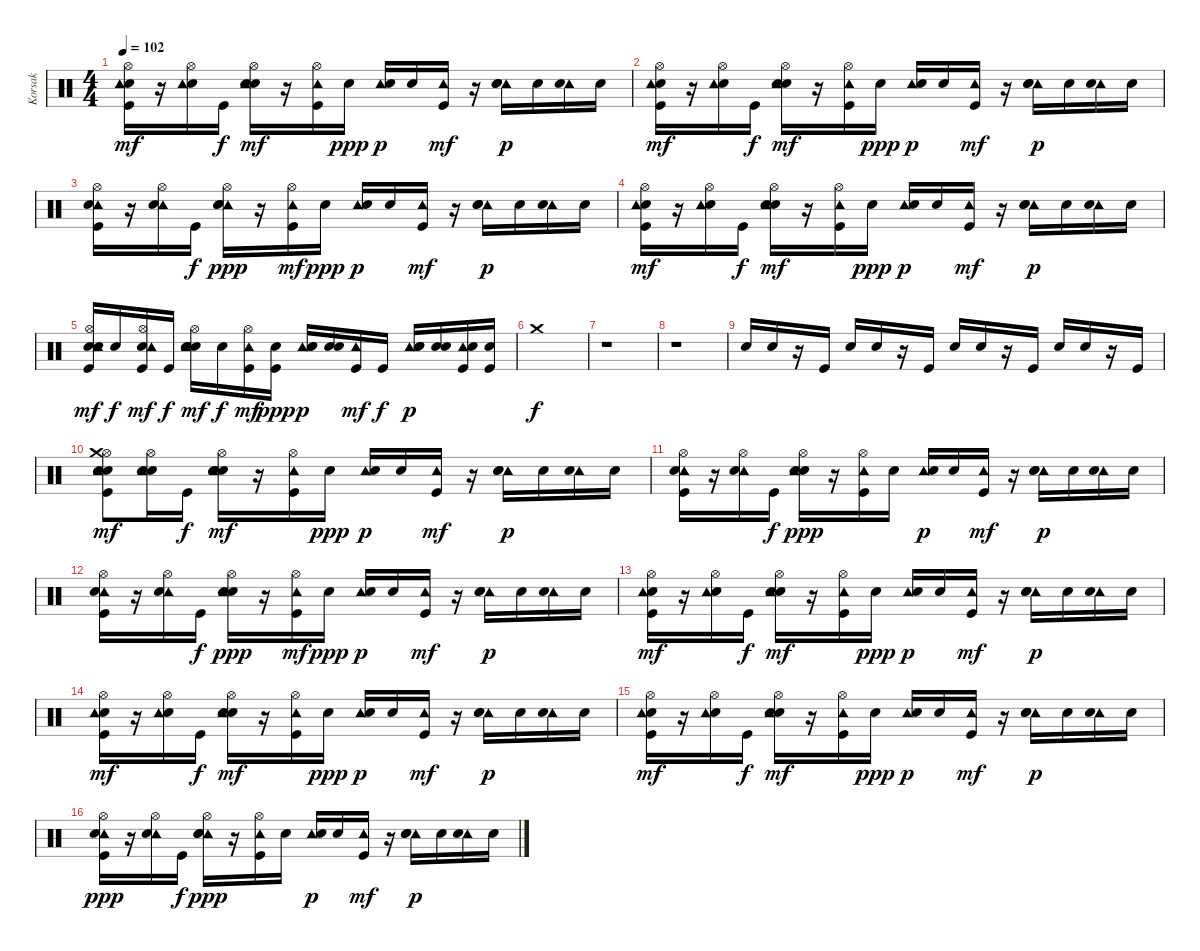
\track ("Korsak" "Korsak") {instrument percussion}
\staff {score}
\articulation defaults
\ts (4 4)
\tempo 102
\clef neutral
\ks c
("Kick (hit)" "Hi-Hat (open)" "Electric Snare (hit)" "Tambourine (hit)").16{dy mf} r.16 ("Hi-Hat (open)" "Electric Snare (hit)" "Tambourine (hit)").16 "Kick (hit)".16{dy f} ("Snare (hit) 2" "Hi-Hat (open)" "Electric Snare (hit)" "Tambourine (hit)").16{dy mf} r.16 ("Kick (hit)" "Hi-Hat (open)" "Tambourine (hit)").16 "Electric Snare (hit)".16{dy ppp} ("Tambourine (hit)" "Electric Snare (hit)").16{dy p} "Electric Snare (hit)".16 ("Kick (hit)" "Tambourine (hit)").16{dy mf} r.16 ("Tambourine (hit)" "Electric Snare (hit)" "Snare (hit) 2").16{dy p} "Electric Snare (hit)".16 ("Tambourine (hit)" "Electric Snare (hit)").16 "Electric Snare (hit)".16 |
("Hi-Hat (open)" "Kick (hit)" "Electric Snare (hit)" "Tambourine (hit)").16{dy mf} r.16 ("Hi-Hat (open)" "Electric Snare (hit)" "Tambourine (hit)").16 "Kick (hit)".16{dy f} ("Hi-Hat (open)" "Snare (hit) 2" "Electric Snare (hit)" "Tambourine (hit)").16{dy mf} r.16 ("Hi-Hat (open)" "Kick (hit)" "Tambourine (hit)").16 "Electric Snare (hit)".16{dy ppp} ("Tambourine (hit)" "Electric Snare (hit)").16{dy p} "Electric Snare (hit)".16 ("Kick (hit)" "Tambourine (hit)").16{dy mf} r.16 ("Tambourine (hit)" "Electric Snare (hit)" "Snare (hit) 2").16{dy p} "Electric Snare (hit)".16 ("Tambourine (hit)" "Electric Snare (hit)").16 "Electric Snare (hit)".16 |
("Hi-Hat (open)" "Tambourine (hit)" "Electric Snare (hit)" "Kick (hit)").16 r.16 ("Hi-Hat (open)" "Tambourine (hit)" "Electric Snare (hit)").16 "Kick (hit)".16{dy f} ("Hi-Hat (open)" "Tambourine (hit)" "Electric Snare (hit)" "Snare (hit) 2").16{dy ppp} r.16 ("Hi-Hat (open)" "Tambourine (hit)" "Kick (hit)").16{dy mf} "Electric Snare (hit)".16{dy ppp} ("Tambourine (hit)" "Electric Snare (hit)").16{dy p} "Electric Snare (hit)".16 ("Tambourine (hit)" "Kick (hit)").16{dy mf} r.16 ("Tambourine (hit)" "Electric Snare (hit)" "Snare (hit) 2").16{dy p} "Electric Snare (hit)".16 ("Tambourine (hit)" "Electric Snare (hit)").16 "Electric Snare (hit)".16 |
("Hi-Hat (open)" "Kick (hit)" "Electric Snare (hit)" "Tambourine (hit)").16{dy mf} r.16 ("Hi-Hat (open)" "Electric Snare (hit)" "Tambourine (hit)").16 "Kick (hit)".16{dy f} ("Hi-Hat (open)" "Snare (hit) 2" "Electric Snare (hit)" "Tambourine (hit)").16{dy mf} r.16 ("Hi-Hat (open)" "Kick (hit)" "Tambourine (hit)").16 "Electric Snare (hit)".16{dy ppp} ("Tambourine (hit)" "Electric Snare (hit)").16{dy p} "Electric Snare (hit)".16 ("Kick (hit)" "Tambourine (hit)").16{dy mf} r.16 ("Tambourine (hit)" "Electric Snare (hit)" "Snare (hit) 2").16{dy p} "Electric Snare (hit)".16 ("Tambourine (hit)" "Electric Snare (hit)").16 "Electric Snare (hit)".16 |
("Electric Snare (hit)" "Hi-Hat (open)" "Kick (hit)" "Tambourine (hit)" "Snare (hit) 2").16{dy mf} "Snare (hit) 2".16{dy f} ("Kick (hit)" "Electric Snare (hit)" "Hi-Hat (open)" "Tambourine (hit)").16{dy mf} "Kick (hit)".16{dy f} ("Electric Snare (hit)" "Hi-Hat (open)" "Snare (hit) 2" "Tambourine (hit)" "Snare (hit) 2").16{dy mf} "Snare (hit) 2".16{dy f} ("Hi-Hat (open)" "Kick (hit)" "Tambourine (hit)").16{dy mf} ("Kick (hit)" "Electric Snare (hit)").16{dy ppp} ("Tambourine (hit)" "Snare (hit) 2" "Electric Snare (hit)").16{dy p} ("Snare (hit) 2" "Electric Snare (hit)").16 ("Kick (hit)" "Tambourine (hit)").16{dy mf} "Kick (hit)".16{dy f} ("Tambourine (hit)" "Snare (hit) 2" "Electric Snare (hit)" "Snare (hit) 2").16{dy p} ("Snare (hit) 2" "Electric Snare (hit)").16 ("Tambourine (hit)" "Kick (hit)" "Electric Snare (hit)").16 ("Kick (hit)" "Electric Snare (hit)").16 |
"Crash medium (hit)".1{dy f} |
r.1 |
r.1 |
"Snare (hit) 2".16 "Snare (hit) 2".16 r.16 "Kick (hit)".16 "Snare (hit) 2".16 "Snare (hit) 2".16 r.16 "Kick (hit)".16 "Snare (hit) 2".16 "Snare (hit) 2".16 r.16 "Kick (hit)".16 "Snare (hit) 2".16 "Snare (hit) 2".16 r.16 "Kick (hit)".16 |
("Hi-Hat (open)" "Electric Snare (hit)" "Electric Snare (hit)" "Crash medium (hit)" "Tambourine (hit)" "Kick (hit)").8{dy mf} ("Hi-Hat (open)" "Electric Snare (hit)" "Electric Snare (hit)" "Tambourine (hit)").16 "Kick (hit)".16{dy f} ("Hi-Hat (open)" "Electric Snare (hit)" "Electric Snare (hit)" "Tambourine (hit)" "Snare (hit) 2").16{dy mf} r.16 ("Hi-Hat (open)" "Tambourine (hit)" "Kick (hit)").16 "Electric Snare (hit)".16{dy ppp} ("Tambourine (hit)" "Electric Snare (hit)").16{dy p} "Electric Snare (hit)".16 ("Tambourine (hit)" "Kick (hit)").16{dy mf} r.16 ("Tambourine (hit)" "Electric Snare (hit)" "Snare (hit) 2").16{dy p} "Electric Snare (hit)".16 ("Tambourine (hit)" "Electric Snare (hit)").16 "Electric Snare (hit)".16 |
("Kick (hit)" "Tambourine (hit)" "Hi-Hat (open)" "Electric Snare (hit)").16 r.16 ("Tambourine (hit)" "Hi-Hat (open)" "Electric Snare (hit)").16 "Kick (hit)".16{dy f} ("Snare (hit) 2" "Tambourine (hit)" "Hi-Hat (open)" "Electric Snare (hit)").16{dy ppp} r.16 ("Kick (hit)" "Tambourine (hit)" "Hi-Hat (open)").16 "Electric Snare (hit)".16 ("Tambourine (hit)" "Electric Snare (hit)").16{dy p} "Electric Snare (hit)".16 ("Kick (hit)" "Tambourine (hit)").16{dy mf} r.16 ("Tambourine (hit)" "Electric Snare (hit)" "Snare (hit) 2").16{dy p} "Electric Snare (hit)".16 ("Tambourine (hit)" "Electric Snare (hit)").16 "Electric Snare (hit)".16 |
("Kick (hit)" "Hi-Hat (open)" "Tambourine (hit)" "Electric Snare (hit)").16 r.16 ("Hi-Hat (open)" "Tambourine (hit)" "Electric Snare (hit)").16 "Kick (hit)".16{dy f} ("Snare (hit) 2" "Hi-Hat (open)" "Tambourine (hit)" "Electric Snare (hit)").16{dy ppp} r.16 ("Kick (hit)" "Hi-Hat (open)" "Tambourine (hit)").16{dy mf} "Electric Snare (hit)".16{dy ppp} ("Tambourine (hit)" "Electric Snare (hit)").16{dy p} "Electric Snare (hit)".16 ("Kick (hit)" "Tambourine (hit)").16{dy mf} r.16 ("Tambourine (hit)" "Electric Snare (hit)" "Snare (hit) 2").16{dy p} "Electric Snare (hit)".16 ("Tambourine (hit)" "Electric Snare (hit)").16 "Electric Snare (hit)".16 |
("Hi-Hat (open)" "Kick (hit)" "Electric Snare (hit)" "Tambourine (hit)").16{dy mf} r.16 ("Hi-Hat (open)" "Electric Snare (hit)" "Tambourine (hit)").16 "Kick (hit)".16{dy f} ("Hi-Hat (open)" "Snare (hit) 2" "Electric Snare (hit)" "Tambourine (hit)").16{dy mf} r.16 ("Hi-Hat (open)" "Kick (hit)" "Tambourine (hit)").16 "Electric Snare (hit)".16{dy ppp} ("Tambourine (hit)" "Electric Snare (hit)").16{dy p} "Electric Snare (hit)".16 ("Kick (hit)" "Tambourine (hit)").16{dy mf} r.16 ("Tambourine (hit)" "Electric Snare (hit)" "Snare (hit) 2").16{dy p} "Electric Snare (hit)".16 ("Tambourine (hit)" "Electric Snare (hit)").16 "Electric Snare (hit)".16 |
("Electric Snare (hit)" "Kick (hit)" "Hi-Hat (open)" "Tambourine (hit)").16{dy mf} r.16 ("Electric Snare (hit)" "Hi-Hat (open)" "Tambourine (hit)").16 "Kick (hit)".16{dy f} ("Electric Snare (hit)" "Snare (hit) 2" "Hi-Hat (open)" "Tambourine (hit)").16{dy mf} r.16 ("Kick (hit)" "Hi-Hat (open)" "Tambourine (hit)").16 "Electric Snare (hit)".16{dy ppp} ("Tambourine (hit)" "Electric Snare (hit)").16{dy p} "Electric Snare (hit)".16 ("Kick (hit)" "Tambourine (hit)").16{dy mf} r.16 ("Tambourine (hit)" "Electric Snare (hit)" "Snare (hit) 2").16{dy p} "Electric Snare (hit)".16 ("Tambourine (hit)" "Electric Snare (hit)").16 "Electric Snare (hit)".16 |
("Electric Snare (hit)" "Kick (hit)" "Hi-Hat (open)" "Tambourine (hit)").16{dy mf} r.16 ("Electric Snare (hit)" "Hi-Hat (open)" "Tambourine (hit)").16 "Kick (hit)".16{dy f} ("Electric Snare (hit)" "Snare (hit) 2" "Hi-Hat (open)" "Tambourine (hit)").16{dy mf} r.16 ("Kick (hit)" "Hi-Hat (open)" "Tambourine (hit)").16 "Electric Snare (hit)".16{dy ppp} ("Tambourine (hit)" "Electric Snare (hit)").16{dy p} "Electric Snare (hit)".16 ("Kick (hit)" "Tambourine (hit)").16{dy mf} r.16 ("Tambourine (hit)" "Electric Snare (hit)" "Snare (hit) 2").16{dy p} "Electric Snare (hit)".16 ("Tambourine (hit)" "Electric Snare (hit)").16 "Electric Snare (hit)".16 |
("Tambourine (hit)" "Electric Snare (hit)" "Kick (hit)" "Hi-Hat (open)").16{dy ppp} r.16 ("Tambourine (hit)" "Electric Snare (hit)" "Hi-Hat (open)").16 "Kick (hit)".16{dy f} ("Tambourine (hit)" "Electric Snare (hit)" "Snare (hit) 2" "Hi-Hat (open)").16{dy ppp} r.16 ("Tambourine (hit)" "Kick (hit)" "Hi-Hat (open)").16 "Electric Snare (hit)".16 ("Tambourine (hit)" "Electric Snare (hit)").16{dy p} "Electric Snare (hit)".16 ("Tambourine (hit)" "Kick (hit)").16{dy mf} r.16 ("Tambourine (hit)" "Electric Snare (hit)" "Snare (hit) 2").16{dy p} "Electric Snare (hit)".16 ("Tambourine (hit)" "Electric Snare (hit)").16 "Electric Snare (hit)".16
